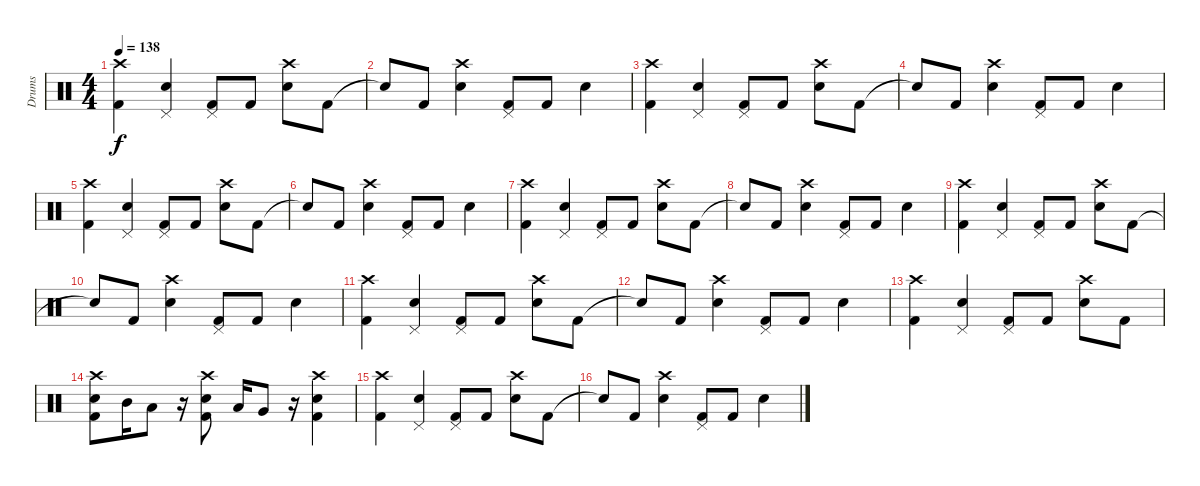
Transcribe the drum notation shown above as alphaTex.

\track ("Drums" "Drums") {instrument percussion}
\staff {score}
\articulation defaults
\ts (4 4)
\tempo 138
\clef neutral
\ks c
("Crash high (hit)" "Kick (hit) 2").4{dy f} ("Pedal Hi-Hat (hit)" "Snare (hit) 2").4 ("Pedal Hi-Hat (hit)" "Kick (hit) 2").8 "Kick (hit) 2".8 ("Crash high (hit)" "Snare (hit) 2").8 "Kick (hit) 2".8 |
"Snare (hit)"{t}.8 "Kick (hit) 2".8 ("Crash high (hit)" "Snare (hit) 2").4 ("Pedal Hi-Hat (hit)" "Kick (hit) 2").8 "Kick (hit) 2".8 "Snare (hit) 2".4 |
("Crash high (hit)" "Kick (hit) 2").4 ("Pedal Hi-Hat (hit)" "Snare (hit) 2").4 ("Pedal Hi-Hat (hit)" "Kick (hit) 2").8 "Kick (hit) 2".8 ("Crash high (hit)" "Snare (hit) 2").8 "Kick (hit) 2".8 |
"Snare (hit)"{t}.8 "Kick (hit) 2".8 ("Crash high (hit)" "Snare (hit) 2").4 ("Pedal Hi-Hat (hit)" "Kick (hit) 2").8 "Kick (hit) 2".8 "Snare (hit) 2".4 |
("Crash high (hit)" "Kick (hit) 2").4 ("Pedal Hi-Hat (hit)" "Snare (hit) 2").4 ("Pedal Hi-Hat (hit)" "Kick (hit) 2").8 "Kick (hit) 2".8 ("Crash high (hit)" "Snare (hit) 2").8 "Kick (hit) 2".8 |
"Snare (hit)"{t}.8 "Kick (hit) 2".8 ("Crash high (hit)" "Snare (hit) 2").4 ("Pedal Hi-Hat (hit)" "Kick (hit) 2").8 "Kick (hit) 2".8 "Snare (hit) 2".4 |
("Crash high (hit)" "Kick (hit) 2").4 ("Pedal Hi-Hat (hit)" "Snare (hit) 2").4 ("Pedal Hi-Hat (hit)" "Kick (hit) 2").8 "Kick (hit) 2".8 ("Crash high (hit)" "Snare (hit) 2").8 "Kick (hit) 2".8 |
"Snare (hit)"{t}.8 "Kick (hit) 2".8 ("Crash high (hit)" "Snare (hit) 2").4 ("Pedal Hi-Hat (hit)" "Kick (hit) 2").8 "Kick (hit) 2".8 "Snare (hit) 2".4 |
("Crash high (hit)" "Kick (hit) 2").4 ("Pedal Hi-Hat (hit)" "Snare (hit) 2").4 ("Pedal Hi-Hat (hit)" "Kick (hit) 2").8 "Kick (hit) 2".8 ("Crash high (hit)" "Snare (hit) 2").8 "Kick (hit) 2".8 |
"Snare (hit)"{t}.8 "Kick (hit) 2".8 ("Crash high (hit)" "Snare (hit) 2").4 ("Pedal Hi-Hat (hit)" "Kick (hit) 2").8 "Kick (hit) 2".8 "Snare (hit) 2".4 |
("Crash high (hit)" "Kick (hit) 2").4 ("Pedal Hi-Hat (hit)" "Snare (hit) 2").4 ("Pedal Hi-Hat (hit)" "Kick (hit) 2").8 "Kick (hit) 2".8 ("Crash high (hit)" "Snare (hit) 2").8 "Kick (hit) 2".8 |
"Snare (hit)"{t}.8 "Kick (hit) 2".8 ("Crash high (hit)" "Snare (hit) 2").4 ("Pedal Hi-Hat (hit)" "Kick (hit) 2").8 "Kick (hit) 2".8 "Snare (hit) 2".4 |
("Crash high (hit)" "Kick (hit) 2").4 ("Pedal Hi-Hat (hit)" "Snare (hit) 2").4 ("Pedal Hi-Hat (hit)" "Kick (hit) 2").8 "Kick (hit) 2".8 ("Crash high (hit)" "Snare (hit) 2").8 "Kick (hit) 2".8 |
("Crash high (hit)" "Snare (hit) 2" "Kick (hit) 2").8 "Mid Tom (hit)".16 "Low Tom (hit)".8 r.16 ("Crash high (hit)" "Snare (hit) 2" "Kick (hit) 2").8 "Low Tom (hit)".16 "Very Low Tom (hit)".8 r.16 ("Crash high (hit)" "Snare (hit) 2" "Kick (hit) 2").4 |
("Crash high (hit)" "Kick (hit) 2").4 ("Pedal Hi-Hat (hit)" "Snare (hit) 2").4 ("Pedal Hi-Hat (hit)" "Kick (hit) 2").8 "Kick (hit) 2".8 ("Crash high (hit)" "Snare (hit) 2").8 "Kick (hit) 2".8 |
"Snare (hit)"{t}.8 "Kick (hit) 2".8 ("Crash high (hit)" "Snare (hit) 2").4 ("Pedal Hi-Hat (hit)" "Kick (hit) 2").8 "Kick (hit) 2".8 "Snare (hit) 2".4
